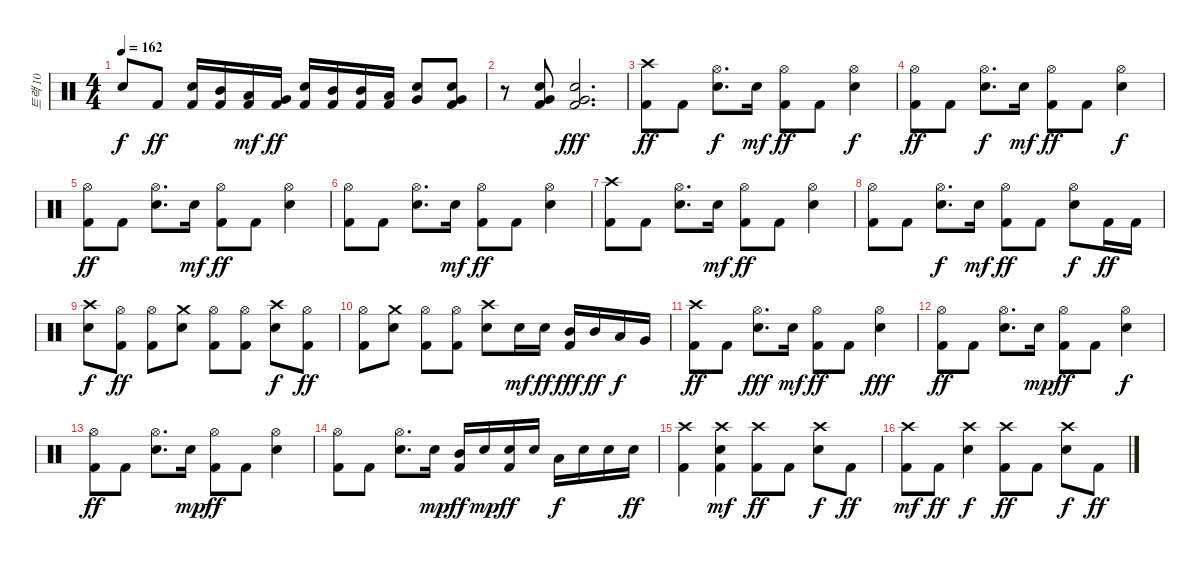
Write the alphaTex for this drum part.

\track ("트랙 10" "트랙 10") {instrument percussion}
\staff {score}
\articulation defaults
\ts (4 4)
\tempo 162
\clef neutral
\ks c "Snare (hit)"{t}.8{dy f} "Kick (hit) 2".8{dy ff}
("Kick (hit) 2" "Electric Snare (hit)").16 ("Kick (hit) 2" "Mid Tom (hit)").16 ("Kick (hit) 2" "Low Tom (hit)").16{dy mf} ("Kick (hit) 2" "Very Low Tom (hit)").16{dy ff} ("Kick (hit) 2" "Electric Snare (hit)").16 ("Kick (hit) 2" "Mid Tom (hit)").16 ("Kick (hit) 2" "Mid Tom (hit)").16 ("Kick (hit) 2" "Low Tom (hit)").16 ("Very Low Tom (hit)" "Electric Snare (hit)").8 ("Kick (hit) 2" "Very Low Tom (hit)" "Electric Snare (hit)").8 |
r.8 ("Kick (hit) 2" "Very Low Tom (hit)" "Electric Snare (hit)").8 ("Kick (hit) 2" "Very Low Tom (hit)" "Electric Snare (hit)").2{d dy fff} |
("Kick (hit) 2" "Crash high (hit)").8{dy ff} "Kick (hit) 2".8 ("Hi-Hat (open)" "Electric Snare (hit)").8{d dy f} "Electric Snare (hit)".16{dy mf} ("Hi-Hat (open)" "Kick (hit) 2").8{dy ff} "Kick (hit) 2".8 ("Hi-Hat (open)" "Electric Snare (hit)").4{dy f} |
("Hi-Hat (open)" "Kick (hit) 2").8{dy ff} "Kick (hit) 2".8 ("Hi-Hat (open)" "Electric Snare (hit)").8{d dy f} "Electric Snare (hit)".16{dy mf} ("Hi-Hat (open)" "Kick (hit) 2").8{dy ff} "Kick (hit) 2".8 ("Hi-Hat (open)" "Electric Snare (hit)").4{dy f} |
("Hi-Hat (open)" "Kick (hit) 2").8{dy ff} "Kick (hit) 2".8 ("Hi-Hat (open)" "Electric Snare (hit)").8{d} "Electric Snare (hit)".16{dy mf} ("Hi-Hat (open)" "Kick (hit) 2").8{dy ff} "Kick (hit) 2".8 ("Hi-Hat (open)" "Electric Snare (hit)").4 |
("Hi-Hat (open)" "Kick (hit) 2").8 "Kick (hit) 2".8 ("Hi-Hat (open)" "Electric Snare (hit)").8{d} "Electric Snare (hit)".16{dy mf} ("Hi-Hat (open)" "Kick (hit) 2").8{dy ff} "Kick (hit) 2".8 ("Hi-Hat (open)" "Electric Snare (hit)").4 |
("Kick (hit) 2" "Crash high (hit)").8 "Kick (hit) 2".8 ("Hi-Hat (open)" "Electric Snare (hit)").8{d} "Electric Snare (hit)".16{dy mf} ("Hi-Hat (open)" "Kick (hit) 2").8{dy ff} "Kick (hit) 2".8 ("Hi-Hat (open)" "Electric Snare (hit)").4 |
("Hi-Hat (open)" "Kick (hit) 2").8 "Kick (hit) 2".8 ("Hi-Hat (open)" "Electric Snare (hit)").8{d dy f} "Electric Snare (hit)".16{dy mf} ("Hi-Hat (open)" "Kick (hit) 2").8{dy ff} "Kick (hit) 2".8 ("Hi-Hat (open)" "Electric Snare (hit)").8{dy f} "Kick (hit) 2".16{dy ff} "Kick (hit) 2".16 |
("Electric Snare (hit)" "Crash high (hit)").8{dy f} ("Hi-Hat (open)" "Kick (hit) 2").8{dy ff} ("Hi-Hat (open)" "Kick (hit) 2").8 ("Electric Snare (hit)" "Crash medium (hit)").8 ("Hi-Hat (open)" "Kick (hit) 2").8 ("Hi-Hat (open)" "Kick (hit) 2").8 ("Electric Snare (hit)" "Crash high (hit)").8{dy f} ("Hi-Hat (open)" "Kick (hit) 2").8{dy ff} |
("Hi-Hat (open)" "Kick (hit) 2").8 ("Electric Snare (hit)" "Crash medium (hit)").8 ("Hi-Hat (open)" "Kick (hit) 2").8 ("Hi-Hat (open)" "Kick (hit) 2").8 ("Electric Snare (hit)" "Crash high (hit)").8 "Electric Snare (hit)".16{dy mf} "Electric Snare (hit)".16{dy ff} ("Kick (hit) 2" "Mid Tom (hit)").16{dy fff} "Mid Tom (hit)".16{dy ff} "Low Tom (hit)".16{dy f} "Very Low Tom (hit)".16 |
("Kick (hit) 2" "Crash high (hit)").8{dy ff} "Kick (hit) 2".8 ("Hi-Hat (open)" "Electric Snare (hit)").8{d dy fff} "Electric Snare (hit)".16{dy mf} ("Hi-Hat (open)" "Kick (hit) 2").8{dy ff} "Kick (hit) 2".8 ("Hi-Hat (open)" "Electric Snare (hit)").4{dy fff} |
("Hi-Hat (open)" "Kick (hit) 2").8{dy ff} "Kick (hit) 2".8 ("Hi-Hat (open)" "Electric Snare (hit)").8{d} "Electric Snare (hit)".16{dy mp} ("Hi-Hat (open)" "Kick (hit) 2").8{dy ff} "Kick (hit) 2".8 ("Hi-Hat (open)" "Electric Snare (hit)").4{dy f} |
("Hi-Hat (open)" "Kick (hit) 2").8{dy ff} "Kick (hit) 2".8 ("Hi-Hat (open)" "Electric Snare (hit)").8{d} "Electric Snare (hit)".16{dy mp} ("Hi-Hat (open)" "Kick (hit) 2").8{dy ff} "Kick (hit) 2".8 ("Hi-Hat (open)" "Electric Snare (hit)").4 |
("Hi-Hat (open)" "Kick (hit) 2").8 "Kick (hit) 2".8 ("Hi-Hat (open)" "Electric Snare (hit)").8{d} "Electric Snare (hit)".16{dy mp} ("Kick (hit) 2" "Mid Tom (hit)").16{dy ff} "Electric Snare (hit)".16{dy mp} ("Kick (hit) 2" "Electric Snare (hit)").16{dy ff} "Electric Snare (hit)".16 "Low Tom (hit)".16{dy f} "Electric Snare (hit)".16 "Electric Snare (hit)".16 "Electric Snare (hit)".16{dy ff} |
("Kick (hit) 2" "Crash high (hit)").4 ("Kick (hit) 2" "Electric Snare (hit)" "Crash high (hit)").4{dy mf} ("Kick (hit) 2" "Crash high (hit)").8{dy ff} "Kick (hit) 2".8 ("Electric Snare (hit)" "Crash high (hit)").8{dy f} "Kick (hit) 2".8{dy ff} |
("Kick (hit) 2" "Crash high (hit)").8{dy mf} "Kick (hit) 2".8{dy ff} ("Electric Snare (hit)" "Crash high (hit)").4{dy f} ("Kick (hit) 2" "Crash high (hit)").8{dy ff} "Kick (hit) 2".8 ("Electric Snare (hit)" "Crash high (hit)").8{dy f} "Kick (hit) 2".8{dy ff}
